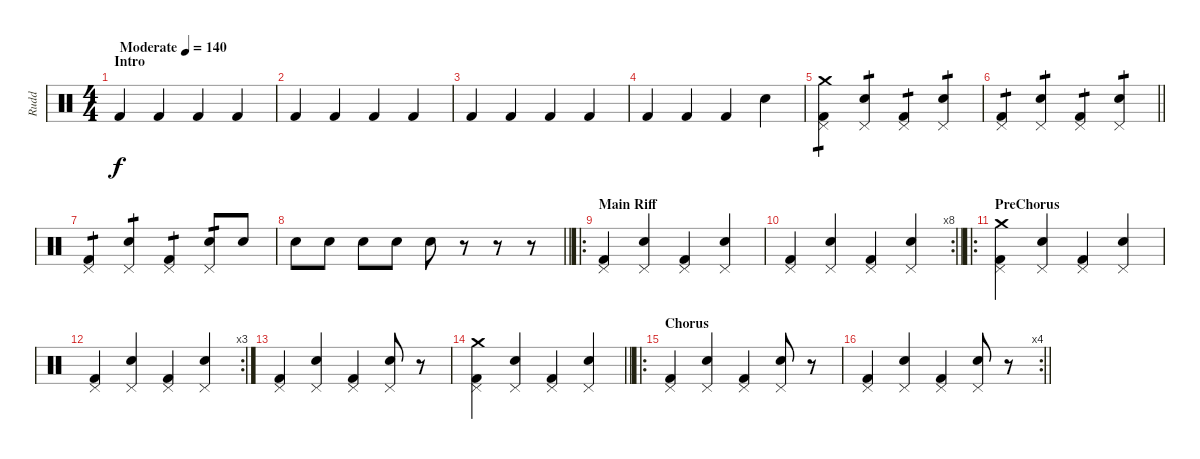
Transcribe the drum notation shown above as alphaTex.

\track ("Rudd" "Rudd") {instrument percussion}
\staff {score}
\articulation defaults
\ts (4 4)
\section ("" "Intro")
\tempo (140 "Moderate")
\clef neutral
\ks c "Kick (hit) 2".4{dy f} "Kick (hit) 2".4 "Kick (hit) 2".4 "Kick (hit) 2".4
|
"Kick (hit) 2".4 "Kick (hit) 2".4 "Kick (hit) 2".4 "Kick (hit) 2".4 |
"Kick (hit) 2".4 "Kick (hit) 2".4 "Kick (hit) 2".4 "Kick (hit) 2".4 |
"Kick (hit) 2".4 "Kick (hit) 2".4 "Kick (hit) 2".4 "Snare (hit) 2".4 |
("Kick (hit) 2" "Pedal Hi-Hat (hit)" "Crash medium (hit)").4{tp 1} ("Snare (hit) 2" "Pedal Hi-Hat (hit)").4{tp 1} ("Kick (hit) 2" "Pedal Hi-Hat (hit)").4{tp 1} ("Snare (hit) 2" "Pedal Hi-Hat (hit)").4{tp 1} |
\barLineRight lightlight
("Kick (hit) 2" "Pedal Hi-Hat (hit)").4{tp 1} ("Snare (hit) 2" "Pedal Hi-Hat (hit)").4{tp 1} ("Kick (hit) 2" "Pedal Hi-Hat (hit)").4{tp 1} ("Snare (hit) 2" "Pedal Hi-Hat (hit)").4{tp 1} |
\section ("" "")
("Kick (hit) 2" "Pedal Hi-Hat (hit)").4{tp 1} ("Snare (hit) 2" "Pedal Hi-Hat (hit)").4{tp 1} ("Kick (hit) 2" "Pedal Hi-Hat (hit)").4{tp 1} ("Snare (hit) 2" "Pedal Hi-Hat (hit)").8{tp 1} "Snare (hit) 2".8 |
\barLineRight lightlight "Snare (hit) 2".8 "Snare (hit) 2".8 "Snare (hit) 2".8 "Snare (hit) 2".8 "Snare (hit) 2".8
r.8 r.8 r.8 |
\ro
\section ("" "Main Riff")
("Kick (hit) 2" "Pedal Hi-Hat (hit)").4 ("Snare (hit) 2" "Pedal Hi-Hat (hit)").4 ("Kick (hit) 2" "Pedal Hi-Hat (hit)").4 ("Snare (hit) 2" "Pedal Hi-Hat (hit)").4 |
\rc 8
\barLineRight lightlight
("Kick (hit) 2" "Pedal Hi-Hat (hit)").4 ("Snare (hit) 2" "Pedal Hi-Hat (hit)").4 ("Kick (hit) 2" "Pedal Hi-Hat (hit)").4 ("Snare (hit) 2" "Pedal Hi-Hat (hit)").4 |
\ro
\section ("" "PreChorus")
("Kick (hit) 2" "Pedal Hi-Hat (hit)" "Crash medium (hit)").4 ("Snare (hit) 2" "Pedal Hi-Hat (hit)").4 ("Kick (hit) 2" "Pedal Hi-Hat (hit)").4 ("Snare (hit) 2" "Pedal Hi-Hat (hit)").4 |
\rc 3
("Kick (hit) 2" "Pedal Hi-Hat (hit)").4 ("Snare (hit) 2" "Pedal Hi-Hat (hit)").4 ("Kick (hit) 2" "Pedal Hi-Hat (hit)").4 ("Snare (hit) 2" "Pedal Hi-Hat (hit)").4 |
("Kick (hit) 2" "Pedal Hi-Hat (hit)").4 ("Snare (hit) 2" "Pedal Hi-Hat (hit)").4 ("Kick (hit) 2" "Pedal Hi-Hat (hit)").4 ("Snare (hit) 2" "Pedal Hi-Hat (hit)").8 r.8 |
\barLineRight lightlight
("Kick (hit) 2" "Pedal Hi-Hat (hit)" "Crash medium (hit)").4 ("Snare (hit) 2" "Pedal Hi-Hat (hit)").4 ("Kick (hit) 2" "Pedal Hi-Hat (hit)").4 ("Snare (hit) 2" "Pedal Hi-Hat (hit)").4 |
\ro
\section ("" "Chorus")
("Kick (hit) 2" "Pedal Hi-Hat (hit)").4 ("Snare (hit) 2" "Pedal Hi-Hat (hit)").4 ("Kick (hit) 2" "Pedal Hi-Hat (hit)").4 ("Snare (hit) 2" "Pedal Hi-Hat (hit)").8 r.8 |
\rc 4
\barLineRight lightlight
("Kick (hit) 2" "Pedal Hi-Hat (hit)").4 ("Snare (hit) 2" "Pedal Hi-Hat (hit)").4 ("Kick (hit) 2" "Pedal Hi-Hat (hit)").4 ("Snare (hit) 2" "Pedal Hi-Hat (hit)").8 r.8
